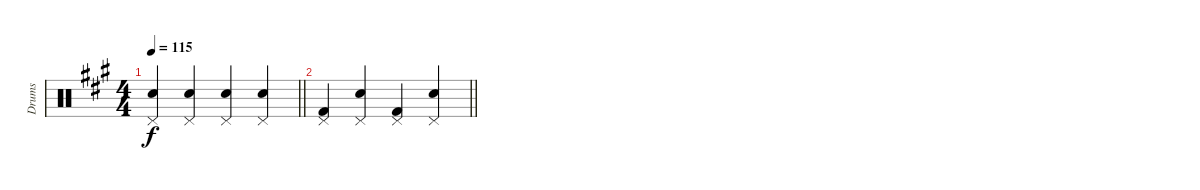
\track ("Drums" "Drums") {instrument percussion}
\staff {score}
\articulation defaults
\ts (4 4)
\tempo 115
\clef neutral
\barLineRight lightlight
\ks a
("Snare (hit) 2" "Pedal Hi-Hat (hit)").4{dy f} ("Snare (hit) 2" "Pedal Hi-Hat (hit)").4 ("Snare (hit) 2" "Pedal Hi-Hat (hit)").4 ("Snare (hit) 2" "Pedal Hi-Hat (hit)").4 |
\barLineRight lightlight
("Kick (hit) 2" "Pedal Hi-Hat (hit)").4 ("Snare (hit) 2" "Pedal Hi-Hat (hit)").4 ("Kick (hit) 2" "Pedal Hi-Hat (hit)").4 ("Snare (hit) 2" "Pedal Hi-Hat (hit)").4
